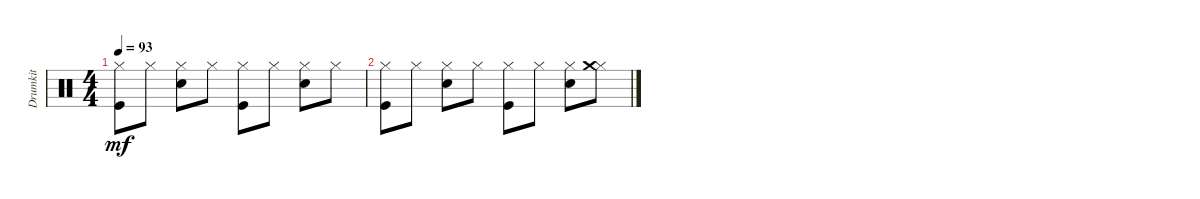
\track ("Drumkit" "Drumkit") {instrument percussion}
\staff {score}
\articulation defaults
\ts (4 4)
\tempo 93
\clef neutral
\ks c
("Kick (hit)" "Hi-Hat (closed)").8{dy mf} "Hi-Hat (closed)".8 ("Hi-Hat (closed)" "Snare (hit) 2").8 "Hi-Hat (closed)".8 ("Hi-Hat (closed)" "Kick (hit)").8 "Hi-Hat (closed)".8 ("Hi-Hat (closed)" "Snare (hit) 2").8 "Hi-Hat (closed)".8 |
("Kick (hit)" "Hi-Hat (closed)").8 "Hi-Hat (closed)".8 ("Hi-Hat (closed)" "Snare (hit) 2").8 "Hi-Hat (closed)".8 ("Hi-Hat (closed)" "Kick (hit)").8 "Hi-Hat (closed)".8 ("Hi-Hat (closed)" "Snare (hit) 2").8 ("Hi-Hat (closed)" "Crash medium (hit)").8
